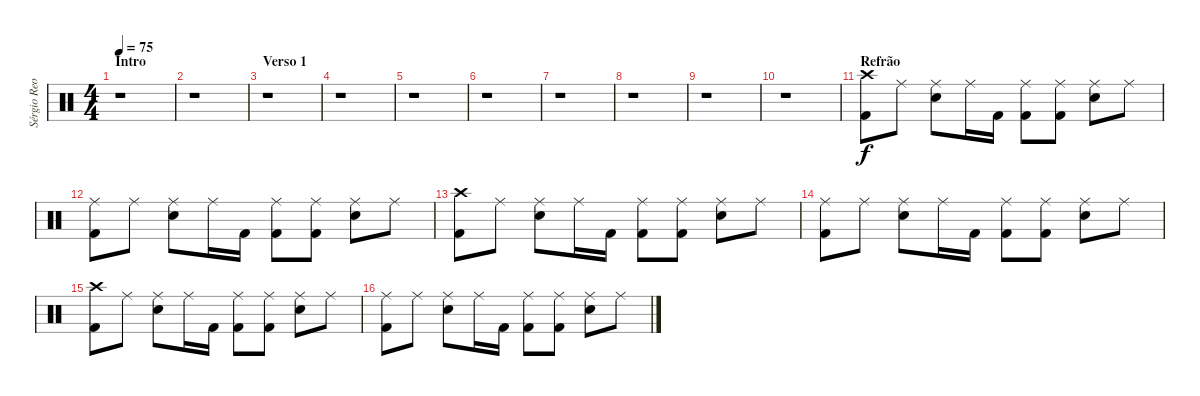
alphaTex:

\track ("Sérgio Reoli" "Sérgio Reo") {instrument percussion}
\staff {score}
\articulation defaults
\ts (4 4)
\section ("" "Intro")
\tempo 75
\clef neutral
\ks c
r.1{dy f} |
r.1 |
\section ("" "Verso 1")
r.1 |
r.1 |
r.1 |
r.1 |
r.1 |
r.1 |
r.1 |
r.1 |
\section ("" "Refrão")
("Crash high (hit)" "Kick (hit) 2").8 "Ride (middle)".8 ("Ride (middle)" "Electric Snare (hit)").8 "Ride (middle)".16 "Kick (hit) 2".16 ("Ride (middle)" "Kick (hit) 2").8 ("Ride (middle)" "Kick (hit) 2").8 ("Ride (middle)" "Electric Snare (hit)").8 "Ride (middle)".8 |
("Ride (middle)" "Kick (hit) 2").8 "Ride (middle)".8 ("Ride (middle)" "Electric Snare (hit)").8 "Ride (middle)".16 "Kick (hit) 2".16 ("Ride (middle)" "Kick (hit) 2").8 ("Ride (middle)" "Kick (hit) 2").8 ("Ride (middle)" "Electric Snare (hit)").8 "Ride (middle)".8 |
("Crash high (hit)" "Kick (hit) 2").8 "Ride (middle)".8 ("Ride (middle)" "Electric Snare (hit)").8 "Ride (middle)".16 "Kick (hit) 2".16 ("Ride (middle)" "Kick (hit) 2").8 ("Ride (middle)" "Kick (hit) 2").8 ("Ride (middle)" "Electric Snare (hit)").8 "Ride (middle)".8 |
("Ride (middle)" "Kick (hit) 2").8 "Ride (middle)".8 ("Ride (middle)" "Electric Snare (hit)").8 "Ride (middle)".16 "Kick (hit) 2".16 ("Ride (middle)" "Kick (hit) 2").8 ("Ride (middle)" "Kick (hit) 2").8 ("Ride (middle)" "Electric Snare (hit)").8 "Ride (middle)".8 |
("Crash high (hit)" "Kick (hit) 2").8 "Ride (middle)".8 ("Ride (middle)" "Electric Snare (hit)").8 "Ride (middle)".16 "Kick (hit) 2".16 ("Ride (middle)" "Kick (hit) 2").8 ("Ride (middle)" "Kick (hit) 2").8 ("Ride (middle)" "Electric Snare (hit)").8 "Ride (middle)".8 |
("Ride (middle)" "Kick (hit) 2").8 "Ride (middle)".8 ("Ride (middle)" "Electric Snare (hit)").8 "Ride (middle)".16 "Kick (hit) 2".16 ("Ride (middle)" "Kick (hit) 2").8 ("Ride (middle)" "Kick (hit) 2").8 ("Ride (middle)" "Electric Snare (hit)").8 "Ride (middle)".8
